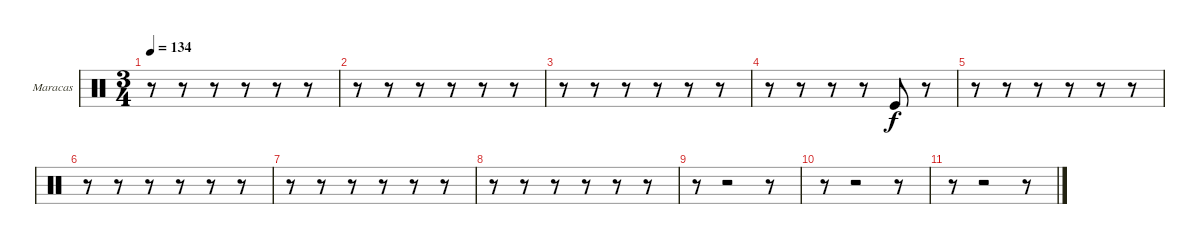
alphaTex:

\bracketExtendMode groupsimilarinstruments
\firstSystemTrackNameOrientation horizontal
\otherSystemsTrackNameOrientation horizontal
\track ("Maracas" "Maracas") {instrument percussion}
\staff {score}
\articulation defaults
\ts (3 4)
\tempo 134
\clef neutral
\ks c
r.8{dy f} r.8 r.8 r.8 r.8 r.8 |
r.8 r.8 r.8 r.8 r.8 r.8 |
r.8 r.8 r.8 r.8 r.8 r.8 |
r.8 r.8 r.8 r.8 "Kick (hit)".8 r.8 |
r.8 r.8 r.8 r.8 r.8 r.8 |
r.8 r.8 r.8 r.8 r.8 r.8 |
r.8 r.8 r.8 r.8 r.8 r.8 |
r.8 r.8 r.8 r.8 r.8 r.8 |
r.8 r.2 r.8 |
r.8 r.2 r.8 |
r.8 r.2 r.8
